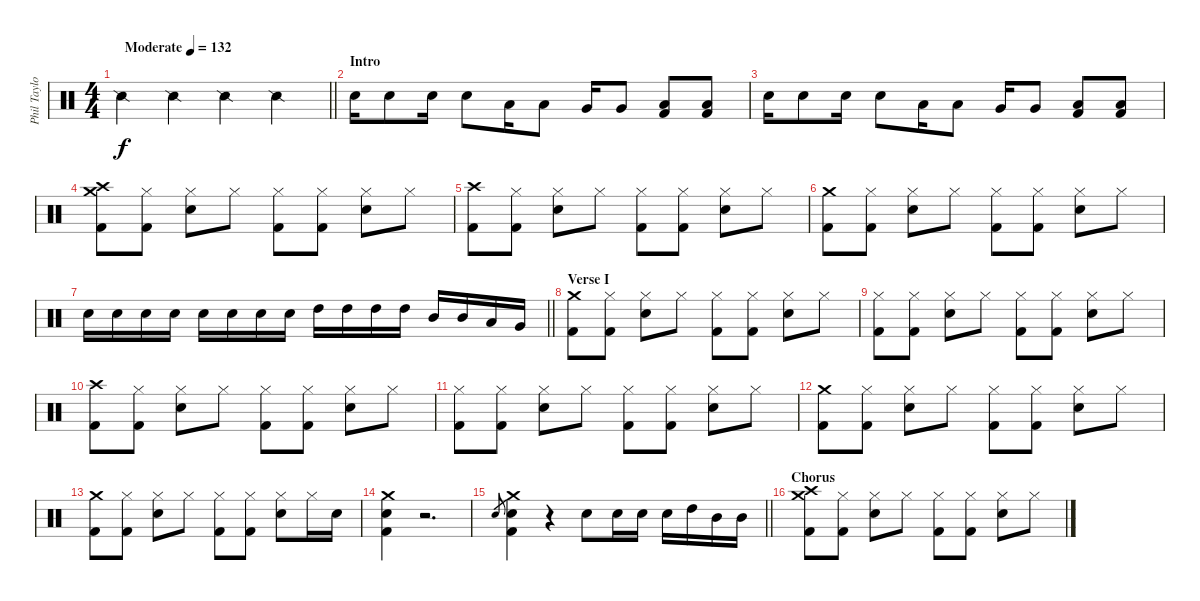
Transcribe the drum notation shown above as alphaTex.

\track ("Phil Taylor" "Phil Taylo") {instrument percussion}
\staff {score}
\articulation defaults
\ts (4 4)
\tempo (132 "Moderate")
\clef neutral
\barLineRight lightlight
\ks c "Snare (side stick) 2".4{dy f} "Snare (side stick) 2".4 "Snare (side stick) 2".4 "Snare (side stick) 2".4
|
\section ("" "Intro")
"Snare (hit) 2".16 "Snare (hit) 2".8 "Snare (hit) 2".16 "Snare (hit) 2".8 "Low Tom (hit)".16 "Low Tom (hit)".8 "Very Low Tom (hit)".16 "Very Low Tom (hit)".8 ("Low Floor Tom (hit)" "Kick (hit) 2").8 ("Low Floor Tom (hit)" "Kick (hit) 2").8 |
"Snare (hit) 2".16 "Snare (hit) 2".8 "Snare (hit) 2".16 "Snare (hit) 2".8 "Low Tom (hit)".16 "Low Tom (hit)".8 "Very Low Tom (hit)".16 "Very Low Tom (hit)".8 ("Low Floor Tom (hit)" "Kick (hit) 2").8 ("Low Floor Tom (hit)" "Kick (hit) 2").8 |
("Crash medium (hit)" "Crash high (hit)" "Kick (hit) 2").8 ("Hi-Hat (closed)" "Kick (hit) 2").8 ("Hi-Hat (closed)" "Snare (hit) 2").8 "Hi-Hat (closed)".8 ("Hi-Hat (closed)" "Kick (hit) 2").8 ("Hi-Hat (closed)" "Kick (hit) 2").8 ("Hi-Hat (closed)" "Snare (hit) 2").8 "Hi-Hat (closed)".8 |
("Crash high (hit)" "Kick (hit) 2").8 ("Hi-Hat (closed)" "Kick (hit) 2").8 ("Hi-Hat (closed)" "Snare (hit) 2").8 "Hi-Hat (closed)".8 ("Hi-Hat (closed)" "Kick (hit) 2").8 ("Hi-Hat (closed)" "Kick (hit) 2").8 ("Hi-Hat (closed)" "Snare (hit) 2").8 "Hi-Hat (closed)".8 |
("Crash medium (hit)" "Kick (hit) 2").8 ("Hi-Hat (closed)" "Kick (hit) 2").8 ("Hi-Hat (closed)" "Snare (hit) 2").8 "Hi-Hat (closed)".8 ("Hi-Hat (closed)" "Kick (hit) 2").8 ("Hi-Hat (closed)" "Kick (hit) 2").8 ("Hi-Hat (closed)" "Snare (hit) 2").8 "Hi-Hat (closed)".8 |
\barLineRight lightlight "Snare (hit) 2".16 "Snare (hit) 2".16 "Snare (hit) 2".16 "Snare (hit) 2".16 "Snare (hit) 2".16 "Snare (hit) 2".16 "Snare (hit) 2".16 "Snare (hit) 2".16 "High Tom (hit)".16 "High Tom (hit)".16 "High Tom (hit)".16 "High Tom (hit)".16 "Mid Tom (hit)".16 "Mid Tom (hit)".16 "Low Tom (hit)".16 "Very Low Tom (hit)".16
|
\section ("" "Verse I")
("Crash medium (hit)" "Kick (hit) 2").8 ("Hi-Hat (closed)" "Kick (hit) 2").8 ("Hi-Hat (closed)" "Snare (hit) 2").8 "Hi-Hat (closed)".8 ("Hi-Hat (closed)" "Kick (hit) 2").8 ("Hi-Hat (closed)" "Kick (hit) 2").8 ("Hi-Hat (closed)" "Snare (hit) 2").8 "Hi-Hat (closed)".8 |
("Hi-Hat (closed)" "Kick (hit) 2").8 ("Hi-Hat (closed)" "Kick (hit) 2").8 ("Hi-Hat (closed)" "Snare (hit) 2").8 "Hi-Hat (closed)".8 ("Hi-Hat (closed)" "Kick (hit) 2").8 ("Hi-Hat (closed)" "Kick (hit) 2").8 ("Hi-Hat (closed)" "Snare (hit) 2").8 "Hi-Hat (closed)".8 |
("Crash high (hit)" "Kick (hit) 2").8 ("Hi-Hat (closed)" "Kick (hit) 2").8 ("Hi-Hat (closed)" "Snare (hit) 2").8 "Hi-Hat (closed)".8 ("Hi-Hat (closed)" "Kick (hit) 2").8 ("Hi-Hat (closed)" "Kick (hit) 2").8 ("Hi-Hat (closed)" "Snare (hit) 2").8 "Hi-Hat (closed)".8 |
("Hi-Hat (closed)" "Kick (hit) 2").8 ("Hi-Hat (closed)" "Kick (hit) 2").8 ("Hi-Hat (closed)" "Snare (hit) 2").8 "Hi-Hat (closed)".8 ("Hi-Hat (closed)" "Kick (hit) 2").8 ("Hi-Hat (closed)" "Kick (hit) 2").8 ("Hi-Hat (closed)" "Snare (hit) 2").8 "Hi-Hat (closed)".8 |
("Crash medium (hit)" "Kick (hit) 2").8 ("Hi-Hat (closed)" "Kick (hit) 2").8 ("Hi-Hat (closed)" "Snare (hit) 2").8 "Hi-Hat (closed)".8 ("Hi-Hat (closed)" "Kick (hit) 2").8 ("Hi-Hat (closed)" "Kick (hit) 2").8 ("Hi-Hat (closed)" "Snare (hit) 2").8 "Hi-Hat (closed)".8 |
("Crash medium (hit)" "Kick (hit) 2").8 ("Hi-Hat (closed)" "Kick (hit) 2").8 ("Hi-Hat (closed)" "Snare (hit) 2").8 "Hi-Hat (closed)".8 ("Hi-Hat (closed)" "Kick (hit) 2").8 ("Hi-Hat (closed)" "Kick (hit) 2").8 ("Hi-Hat (closed)" "Snare (hit) 2").8 "Hi-Hat (closed)".16 "Snare (hit) 2".16 |
("Crash medium (hit)" "Snare (hit) 2" "Kick (hit) 2").4 r.2{d} |
\barLineRight lightlight "Snare (hit) 2".8{gr}
("Crash medium (hit)" "Snare (hit) 2" "Kick (hit) 2").4 r.4 "Snare (hit) 2".8 "Snare (hit) 2".16 "Snare (hit) 2".16 "Snare (hit) 2".16 "High Tom (hit)".16 "Mid Tom (hit)".16 "Mid Tom (hit)".16 |
\section ("" "Chorus")
("Crash medium (hit)" "Crash high (hit)" "Kick (hit) 2").8 ("Hi-Hat (closed)" "Kick (hit) 2").8 ("Hi-Hat (closed)" "Snare (hit) 2").8 "Hi-Hat (closed)".8 ("Hi-Hat (closed)" "Kick (hit) 2").8 ("Hi-Hat (closed)" "Kick (hit) 2").8 ("Hi-Hat (closed)" "Snare (hit) 2").8 "Hi-Hat (closed)".8
